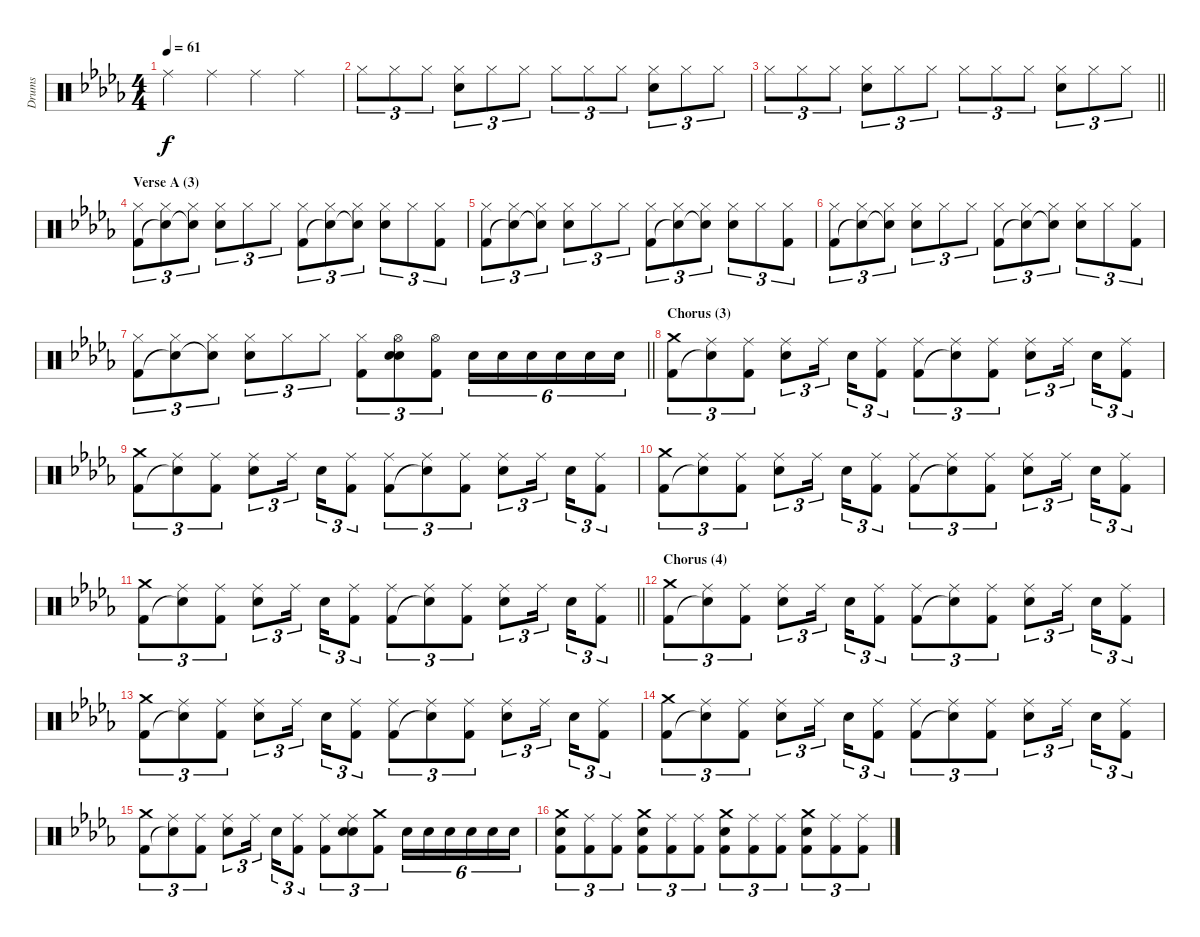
\track ("Drums" "Drums") {instrument percussion}
\staff {score}
\articulation defaults
\ts (4 4)
\tempo 61
\clef neutral
\ks bbminor "Ride (middle)".4{dy f} "Ride (middle)".4 "Ride (middle)".4 "Ride (middle)".4
|
"Hi-Hat (closed)".8{tu (3 2)} "Hi-Hat (closed)".8{tu (3 2)} "Hi-Hat (closed)".8{tu (3 2)} ("Hi-Hat (closed)" "Electric Snare (hit)").8{tu (3 2)} "Hi-Hat (closed)".8{tu (3 2)} "Hi-Hat (closed)".8{tu (3 2)} "Hi-Hat (closed)".8{tu (3 2)} "Hi-Hat (closed)".8{tu (3 2)} "Hi-Hat (closed)".8{tu (3 2)} ("Hi-Hat (closed)" "Electric Snare (hit)").8{tu (3 2)} "Hi-Hat (closed)".8{tu (3 2)} "Hi-Hat (closed)".8{tu (3 2)} |
\barLineRight lightlight "Hi-Hat (closed)".8{tu (3 2)} "Hi-Hat (closed)".8{tu (3 2)} "Hi-Hat (closed)".8{tu (3 2)}
("Hi-Hat (closed)" "Electric Snare (hit)").8{tu (3 2)} "Hi-Hat (closed)".8{tu (3 2)} "Hi-Hat (closed)".8{tu (3 2)} "Hi-Hat (closed)".8{tu (3 2)} "Hi-Hat (closed)".8{tu (3 2)} "Hi-Hat (closed)".8{tu (3 2)} ("Hi-Hat (closed)" "Electric Snare (hit)").8{tu (3 2)} "Hi-Hat (closed)".8{tu (3 2)} "Hi-Hat (closed)".8{tu (3 2)} |
\section ("" "Verse A (3)")
("Hi-Hat (closed)" "Kick (hit) 2").8{tu (3 2)} ("Hi-Hat (closed)" "Snare (hit)"{t}).8{tu (3 2)} ("Hi-Hat (closed)" "Snare (hit)"{t}).8{tu (3 2)} ("Hi-Hat (closed)" "Electric Snare (hit)").8{tu (3 2)} "Hi-Hat (closed)".8{tu (3 2)} "Hi-Hat (closed)".8{tu (3 2)} ("Hi-Hat (closed)" "Kick (hit) 2").8{tu (3 2)} ("Hi-Hat (closed)" "Snare (hit)"{t}).8{tu (3 2)} ("Hi-Hat (closed)" "Snare (hit)"{t}).8{tu (3 2)} ("Hi-Hat (closed)" "Electric Snare (hit)").8{tu (3 2)} "Hi-Hat (closed)".8{tu (3 2)} ("Hi-Hat (closed)" "Kick (hit) 2").8{tu (3 2)} |
("Hi-Hat (closed)" "Kick (hit) 2").8{tu (3 2)} ("Hi-Hat (closed)" "Snare (hit)"{t}).8{tu (3 2)} ("Hi-Hat (closed)" "Snare (hit)"{t}).8{tu (3 2)} ("Hi-Hat (closed)" "Electric Snare (hit)").8{tu (3 2)} "Hi-Hat (closed)".8{tu (3 2)} "Hi-Hat (closed)".8{tu (3 2)} ("Hi-Hat (closed)" "Kick (hit) 2").8{tu (3 2)} ("Hi-Hat (closed)" "Snare (hit)"{t}).8{tu (3 2)} ("Hi-Hat (closed)" "Snare (hit)"{t}).8{tu (3 2)} ("Hi-Hat (closed)" "Electric Snare (hit)").8{tu (3 2)} "Hi-Hat (closed)".8{tu (3 2)} ("Hi-Hat (closed)" "Kick (hit) 2").8{tu (3 2)} |
("Hi-Hat (closed)" "Kick (hit) 2").8{tu (3 2)} ("Hi-Hat (closed)" "Snare (hit)"{t}).8{tu (3 2)} ("Hi-Hat (closed)" "Snare (hit)"{t}).8{tu (3 2)} ("Hi-Hat (closed)" "Electric Snare (hit)").8{tu (3 2)} "Hi-Hat (closed)".8{tu (3 2)} "Hi-Hat (closed)".8{tu (3 2)} ("Hi-Hat (closed)" "Kick (hit) 2").8{tu (3 2)} ("Hi-Hat (closed)" "Snare (hit)"{t}).8{tu (3 2)} ("Hi-Hat (closed)" "Snare (hit)"{t}).8{tu (3 2)} ("Hi-Hat (closed)" "Electric Snare (hit)").8{tu (3 2)} "Hi-Hat (closed)".8{tu (3 2)} ("Hi-Hat (closed)" "Kick (hit) 2").8{tu (3 2)} |
\barLineRight lightlight
("Hi-Hat (closed)" "Kick (hit) 2").8{tu (3 2)} ("Hi-Hat (closed)" "Snare (hit)"{t}).8{tu (3 2)} ("Hi-Hat (closed)" "Snare (hit)"{t}).8{tu (3 2)} ("Hi-Hat (closed)" "Electric Snare (hit)").8{tu (3 2)} "Hi-Hat (closed)".8{tu (3 2)} "Hi-Hat (closed)".8{tu (3 2)} ("Hi-Hat (closed)" "Kick (hit) 2").8{tu (3 2)} ("Hi-Hat (open)" "Electric Snare (hit)" "Snare (hit)").8{tu (3 2)} ("Hi-Hat (open)" "Kick (hit) 2").8{tu (3 2)} "Electric Snare (hit)".16{tu (6 4)} "Electric Snare (hit)".16{tu (6 4)} "Electric Snare (hit)".16{tu (6 4)} "Electric Snare (hit)".16{tu (6 4)} "Electric Snare (hit)".16{tu (6 4)} "Electric Snare (hit)".16{tu (6 4)} |
\section ("" "Chorus (3)")
("Crash medium (hit)" "Kick (hit) 2").8{tu (3 2)} ("Ride (middle)" "Snare (hit)"{t}).8{tu (3 2)} ("Ride (middle)" "Kick (hit) 2").8{tu (3 2)} ("Ride (middle)" "Electric Snare (hit)").8{tu (3 2)} "Ride (middle)".16{tu (3 2)} "Electric Snare (hit)".16{tu (3 2)} ("Ride (middle)" "Kick (hit) 2").8{tu (3 2)} ("Ride (middle)" "Kick (hit) 2").8{tu (3 2)} ("Ride (middle)" "Snare (hit)"{t}).8{tu (3 2)} ("Ride (middle)" "Kick (hit) 2").8{tu (3 2)} ("Ride (middle)" "Electric Snare (hit)").8{tu (3 2)} "Ride (middle)".16{tu (3 2)} "Electric Snare (hit)".16{tu (3 2)} ("Ride (middle)" "Kick (hit) 2").8{tu (3 2)} |
("Crash medium (hit)" "Kick (hit) 2").8{tu (3 2)} ("Ride (middle)" "Snare (hit)"{t}).8{tu (3 2)} ("Ride (middle)" "Kick (hit) 2").8{tu (3 2)} ("Ride (middle)" "Electric Snare (hit)").8{tu (3 2)} "Ride (middle)".16{tu (3 2)} "Electric Snare (hit)".16{tu (3 2)} ("Ride (middle)" "Kick (hit) 2").8{tu (3 2)} ("Ride (middle)" "Kick (hit) 2").8{tu (3 2)} ("Ride (middle)" "Snare (hit)"{t}).8{tu (3 2)} ("Ride (middle)" "Kick (hit) 2").8{tu (3 2)} ("Ride (middle)" "Electric Snare (hit)").8{tu (3 2)} "Ride (middle)".16{tu (3 2)} "Electric Snare (hit)".16{tu (3 2)} ("Ride (middle)" "Kick (hit) 2").8{tu (3 2)} |
("Crash medium (hit)" "Kick (hit) 2").8{tu (3 2)} ("Ride (middle)" "Snare (hit)"{t}).8{tu (3 2)} ("Ride (middle)" "Kick (hit) 2").8{tu (3 2)} ("Ride (middle)" "Electric Snare (hit)").8{tu (3 2)} "Ride (middle)".16{tu (3 2)} "Electric Snare (hit)".16{tu (3 2)} ("Ride (middle)" "Kick (hit) 2").8{tu (3 2)} ("Ride (middle)" "Kick (hit) 2").8{tu (3 2)} ("Ride (middle)" "Snare (hit)"{t}).8{tu (3 2)} ("Ride (middle)" "Kick (hit) 2").8{tu (3 2)} ("Ride (middle)" "Electric Snare (hit)").8{tu (3 2)} "Ride (middle)".16{tu (3 2)} "Electric Snare (hit)".16{tu (3 2)} ("Ride (middle)" "Kick (hit) 2").8{tu (3 2)} |
\barLineRight lightlight
("Crash medium (hit)" "Kick (hit) 2").8{tu (3 2)} ("Ride (middle)" "Snare (hit)"{t}).8{tu (3 2)} ("Ride (middle)" "Kick (hit) 2").8{tu (3 2)} ("Ride (middle)" "Electric Snare (hit)").8{tu (3 2)} "Ride (middle)".16{tu (3 2)} "Electric Snare (hit)".16{tu (3 2)} ("Ride (middle)" "Kick (hit) 2").8{tu (3 2)} ("Ride (middle)" "Kick (hit) 2").8{tu (3 2)} ("Ride (middle)" "Snare (hit)"{t}).8{tu (3 2)} ("Ride (middle)" "Kick (hit) 2").8{tu (3 2)} ("Ride (middle)" "Electric Snare (hit)").8{tu (3 2)} "Ride (middle)".16{tu (3 2)} "Electric Snare (hit)".16{tu (3 2)} ("Ride (middle)" "Kick (hit) 2").8{tu (3 2)} |
\section ("" "Chorus (4)")
("Crash medium (hit)" "Kick (hit) 2").8{tu (3 2)} ("Ride (middle)" "Snare (hit)"{t}).8{tu (3 2)} ("Ride (middle)" "Kick (hit) 2").8{tu (3 2)} ("Ride (middle)" "Electric Snare (hit)").8{tu (3 2)} "Ride (middle)".16{tu (3 2)} "Electric Snare (hit)".16{tu (3 2)} ("Ride (middle)" "Kick (hit) 2").8{tu (3 2)} ("Ride (middle)" "Kick (hit) 2").8{tu (3 2)} ("Ride (middle)" "Snare (hit)"{t}).8{tu (3 2)} ("Ride (middle)" "Kick (hit) 2").8{tu (3 2)} ("Ride (middle)" "Electric Snare (hit)").8{tu (3 2)} "Ride (middle)".16{tu (3 2)} "Electric Snare (hit)".16{tu (3 2)} ("Ride (middle)" "Kick (hit) 2").8{tu (3 2)} |
("Crash medium (hit)" "Kick (hit) 2").8{tu (3 2)} ("Ride (middle)" "Snare (hit)"{t}).8{tu (3 2)} ("Ride (middle)" "Kick (hit) 2").8{tu (3 2)} ("Ride (middle)" "Electric Snare (hit)").8{tu (3 2)} "Ride (middle)".16{tu (3 2)} "Electric Snare (hit)".16{tu (3 2)} ("Ride (middle)" "Kick (hit) 2").8{tu (3 2)} ("Ride (middle)" "Kick (hit) 2").8{tu (3 2)} ("Ride (middle)" "Snare (hit)"{t}).8{tu (3 2)} ("Ride (middle)" "Kick (hit) 2").8{tu (3 2)} ("Ride (middle)" "Electric Snare (hit)").8{tu (3 2)} "Ride (middle)".16{tu (3 2)} "Electric Snare (hit)".16{tu (3 2)} ("Ride (middle)" "Kick (hit) 2").8{tu (3 2)} |
("Crash medium (hit)" "Kick (hit) 2").8{tu (3 2)} ("Ride (middle)" "Snare (hit)"{t}).8{tu (3 2)} ("Ride (middle)" "Kick (hit) 2").8{tu (3 2)} ("Ride (middle)" "Electric Snare (hit)").8{tu (3 2)} "Ride (middle)".16{tu (3 2)} "Electric Snare (hit)".16{tu (3 2)} ("Ride (middle)" "Kick (hit) 2").8{tu (3 2)} ("Ride (middle)" "Kick (hit) 2").8{tu (3 2)} ("Ride (middle)" "Snare (hit)"{t}).8{tu (3 2)} ("Ride (middle)" "Kick (hit) 2").8{tu (3 2)} ("Ride (middle)" "Electric Snare (hit)").8{tu (3 2)} "Ride (middle)".16{tu (3 2)} "Electric Snare (hit)".16{tu (3 2)} ("Ride (middle)" "Kick (hit) 2").8{tu (3 2)} |
("Crash medium (hit)" "Kick (hit) 2").8{tu (3 2)} ("Ride (middle)" "Snare (hit)"{t}).8{tu (3 2)} ("Ride (middle)" "Kick (hit) 2").8{tu (3 2)} ("Ride (middle)" "Electric Snare (hit)").8{tu (3 2)} "Ride (middle)".16{tu (3 2)} "Electric Snare (hit)".16{tu (3 2)} ("Ride (middle)" "Kick (hit) 2").8{tu (3 2)} ("Ride (middle)" "Kick (hit) 2").8{tu (3 2)} ("Ride (middle)" "Electric Snare (hit)" "Snare (hit)").8{tu (3 2)} ("Crash medium (hit)" "Kick (hit) 2").8{tu (3 2)} "Electric Snare (hit)".16{tu (6 4)} "Electric Snare (hit)".16{tu (6 4)} "Electric Snare (hit)".16{tu (6 4)} "Electric Snare (hit)".16{tu (6 4)} "Electric Snare (hit)".16{tu (6 4)} "Electric Snare (hit)".16{tu (6 4)} |
("Crash medium (hit)" "Electric Snare (hit)" "Kick (hit) 2").8{tu (3 2)} ("Ride (middle)" "Kick (hit) 2").8{tu (3 2)} ("Ride (middle)" "Kick (hit) 2").8{tu (3 2)} ("Crash medium (hit)" "Electric Snare (hit)" "Kick (hit) 2").8{tu (3 2)} ("Ride (middle)" "Kick (hit) 2").8{tu (3 2)} ("Ride (middle)" "Kick (hit) 2").8{tu (3 2)} ("Crash medium (hit)" "Electric Snare (hit)" "Kick (hit) 2").8{tu (3 2)} ("Ride (middle)" "Kick (hit) 2").8{tu (3 2)} ("Ride (middle)" "Kick (hit) 2").8{tu (3 2)} ("Crash medium (hit)" "Electric Snare (hit)" "Kick (hit) 2").8{tu (3 2)} ("Ride (middle)" "Kick (hit) 2").8{tu (3 2)} ("Ride (middle)" "Kick (hit) 2").8{tu (3 2)}
